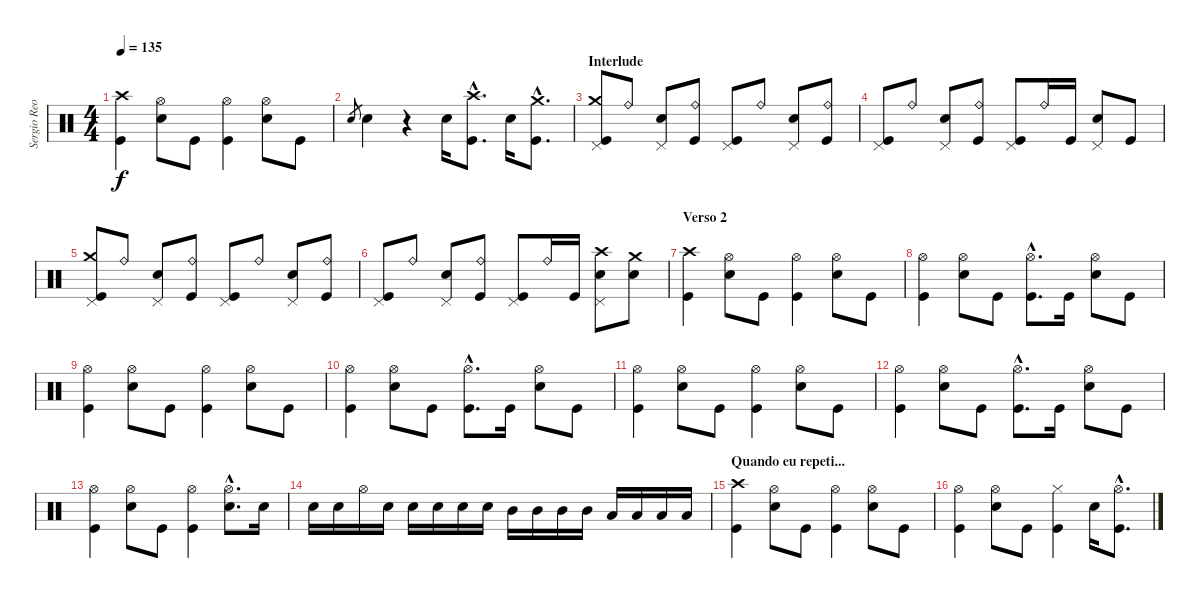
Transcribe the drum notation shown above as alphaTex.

\track ("Sergio Reoli" "Sergio Reo") {instrument percussion}
\staff {score}
\articulation defaults
\ts (4 4)
\tempo 135
\clef neutral
\ks c
("Crash high (hit)" "Kick (hit)").4{dy f} ("Hi-Hat (open)" "Electric Snare (hit)").8 "Kick (hit)".8 ("Hi-Hat (open)" "Kick (hit)").4 ("Hi-Hat (open)" "Electric Snare (hit)").8 "Kick (hit)".8 |
"Electric Snare (hit)".8{gr} "Electric Snare (hit)".4 r.4 "Electric Snare (hit)".16 ("Crash high (hit)"{hac} "Kick (hit)"{hac}).8{d} "Electric Snare (hit)".16 ("Crash medium (hit)"{hac} "Kick (hit)"{hac}).8{d} |
\section ("" "Interlude")
("Crash medium (hit)" "Pedal Hi-Hat (hit)" "Kick (hit)").8 "Ride (bell)".8 ("Electric Snare (hit)" "Pedal Hi-Hat (hit)").8 ("Ride (bell)" "Kick (hit)").8 ("Pedal Hi-Hat (hit)" "Kick (hit)").8 "Ride (bell)".8 ("Electric Snare (hit)" "Pedal Hi-Hat (hit)").8 ("Ride (bell)" "Kick (hit)").8 |
("Pedal Hi-Hat (hit)" "Kick (hit)").8 "Ride (bell)".8 ("Electric Snare (hit)" "Pedal Hi-Hat (hit)").8 ("Ride (bell)" "Kick (hit)").8 ("Pedal Hi-Hat (hit)" "Kick (hit)").8 "Ride (bell)".16 "Kick (hit)".16 ("Electric Snare (hit)" "Pedal Hi-Hat (hit)").8 "Kick (hit)".8 |
("Crash medium (hit)" "Pedal Hi-Hat (hit)" "Kick (hit)").8 "Ride (bell)".8 ("Electric Snare (hit)" "Pedal Hi-Hat (hit)").8 ("Ride (bell)" "Kick (hit)").8 ("Pedal Hi-Hat (hit)" "Kick (hit)").8 "Ride (bell)".8 ("Electric Snare (hit)" "Pedal Hi-Hat (hit)").8 ("Ride (bell)" "Kick (hit)").8 |
("Pedal Hi-Hat (hit)" "Kick (hit)").8 "Ride (bell)".8 ("Electric Snare (hit)" "Pedal Hi-Hat (hit)").8 ("Ride (bell)" "Kick (hit)").8 ("Pedal Hi-Hat (hit)" "Kick (hit)").8 "Ride (bell)".16 "Kick (hit)".16 ("Crash high (hit)" "Electric Snare (hit)" "Pedal Hi-Hat (hit)").8 ("Crash medium (hit)" "Electric Snare (hit)").8 |
\section ("" "Verso 2")
("Crash high (hit)" "Kick (hit)").4 ("Hi-Hat (open)" "Electric Snare (hit)").8 "Kick (hit)".8 ("Hi-Hat (open)" "Kick (hit)").4 ("Hi-Hat (open)" "Electric Snare (hit)").8 "Kick (hit)".8 |
("Hi-Hat (open)" "Kick (hit)").4 ("Hi-Hat (open)" "Electric Snare (hit)").8 "Kick (hit)".8 ("Hi-Hat (open)"{hac} "Kick (hit)"{hac}).8{d} "Kick (hit)".16 ("Hi-Hat (open)" "Electric Snare (hit)").8 "Kick (hit)".8 |
("Hi-Hat (open)" "Kick (hit)").4 ("Hi-Hat (open)" "Electric Snare (hit)").8 "Kick (hit)".8 ("Hi-Hat (open)" "Kick (hit)").4 ("Hi-Hat (open)" "Electric Snare (hit)").8 "Kick (hit)".8 |
("Hi-Hat (open)" "Kick (hit)").4 ("Hi-Hat (open)" "Electric Snare (hit)").8 "Kick (hit)".8 ("Hi-Hat (open)"{hac} "Kick (hit)"{hac}).8{d} "Kick (hit)".16 ("Hi-Hat (open)" "Electric Snare (hit)").8 "Kick (hit)".8 |
("Hi-Hat (open)" "Kick (hit)").4 ("Hi-Hat (open)" "Electric Snare (hit)").8 "Kick (hit)".8 ("Hi-Hat (open)" "Kick (hit)").4 ("Hi-Hat (open)" "Electric Snare (hit)").8 "Kick (hit)".8 |
("Hi-Hat (open)" "Kick (hit)").4 ("Hi-Hat (open)" "Electric Snare (hit)").8 "Kick (hit)".8 ("Hi-Hat (open)"{hac} "Kick (hit)"{hac}).8{d} "Kick (hit)".16 ("Hi-Hat (open)" "Electric Snare (hit)").8 "Kick (hit)".8 |
("Hi-Hat (open)" "Kick (hit)").4 ("Hi-Hat (open)" "Electric Snare (hit)").8 "Kick (hit)".8 ("Hi-Hat (open)" "Kick (hit)").4 ("Hi-Hat (open)"{hac} "Electric Snare (hit)"{hac}).8{d} "Electric Snare (hit)".16 |
"Electric Snare (hit)".16 "Electric Snare (hit)".16 "Hi-Hat (open)".16 "Electric Snare (hit)".16 "Electric Snare (hit)".16 "Electric Snare (hit)".16 "Electric Snare (hit)".16 "Electric Snare (hit)".16 "Mid Tom (hit)".16 "Mid Tom (hit)".16 "Mid Tom (hit)".16 "Mid Tom (hit)".16 "Low Tom (hit)".16 "Low Tom (hit)".16 "Low Tom (hit)".16 "Low Tom (hit)".16 |
\section ("" "Quando eu repeti...")
("Crash high (hit)" "Kick (hit)").4 ("Hi-Hat (open)" "Electric Snare (hit)").8 "Kick (hit)".8 ("Hi-Hat (open)" "Kick (hit)").4 ("Hi-Hat (open)" "Electric Snare (hit)").8 "Kick (hit)".8 |
("Hi-Hat (open)" "Kick (hit)").4 ("Hi-Hat (open)" "Electric Snare (hit)").8 "Kick (hit)".8 ("Hi-Hat (closed)" "Kick (hit)").4 "Electric Snare (hit)".16 ("Hi-Hat (open)"{hac} "Kick (hit)"{hac}).8{d}
